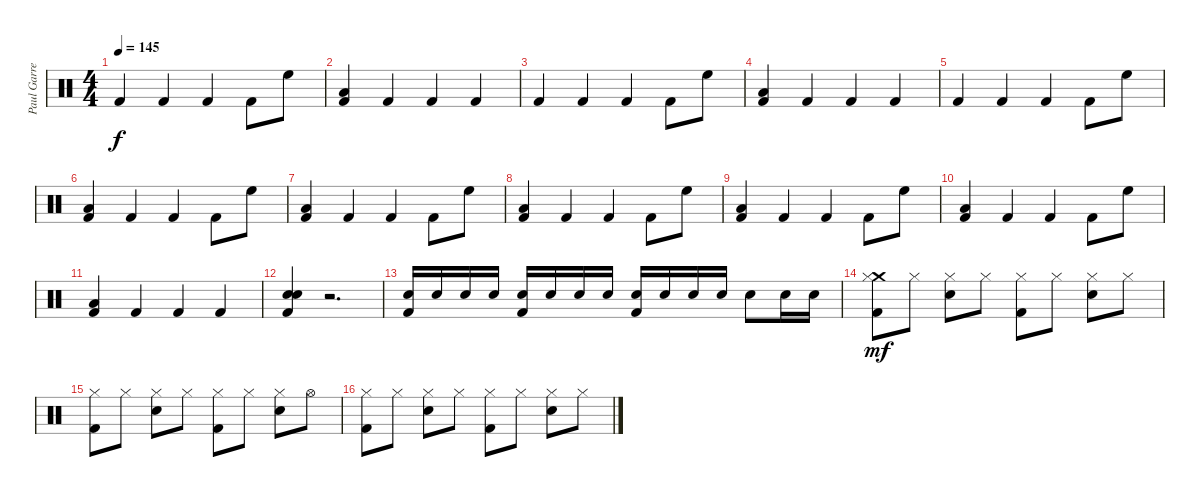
\track ("Paul Garred (Percussion)" "Paul Garre") {instrument percussion}
\staff {score}
\articulation defaults
\ts (4 4)
\tempo 145
\clef neutral
\ks c "Kick (hit) 2".4{dy f} "Kick (hit) 2".4 "Kick (hit) 2".4 "Kick (hit) 2".8 "High Floor Tom (hit)".8
|
("Low Tom (hit)" "Kick (hit) 2").4 "Kick (hit) 2".4 "Kick (hit) 2".4 "Kick (hit) 2".4 |
"Kick (hit) 2".4 "Kick (hit) 2".4 "Kick (hit) 2".4 "Kick (hit) 2".8 "High Floor Tom (hit)".8 |
("Low Tom (hit)" "Kick (hit) 2").4 "Kick (hit) 2".4 "Kick (hit) 2".4 "Kick (hit) 2".4 |
"Kick (hit) 2".4 "Kick (hit) 2".4 "Kick (hit) 2".4 "Kick (hit) 2".8 "High Floor Tom (hit)".8 |
("Low Tom (hit)" "Kick (hit) 2").4 "Kick (hit) 2".4 "Kick (hit) 2".4 "Kick (hit) 2".8 "High Floor Tom (hit)".8 |
("Low Tom (hit)" "Kick (hit) 2").4 "Kick (hit) 2".4 "Kick (hit) 2".4 "Kick (hit) 2".8 "High Floor Tom (hit)".8 |
("Low Tom (hit)" "Kick (hit) 2").4 "Kick (hit) 2".4 "Kick (hit) 2".4 "Kick (hit) 2".8 "High Floor Tom (hit)".8 |
("Low Tom (hit)" "Kick (hit) 2").4 "Kick (hit) 2".4 "Kick (hit) 2".4 "Kick (hit) 2".8 "High Floor Tom (hit)".8 |
("Low Tom (hit)" "Kick (hit) 2").4 "Kick (hit) 2".4 "Kick (hit) 2".4 "Kick (hit) 2".8 "High Floor Tom (hit)".8 |
("Low Tom (hit)" "Kick (hit) 2").4 "Kick (hit) 2".4 "Kick (hit) 2".4 "Kick (hit) 2".4 |
("Snare (hit) 2" "Snare (hit) 2" "Kick (hit) 2").4 r.2{d} |
("Snare (hit) 2" "Kick (hit) 2").16 "Snare (hit) 2".16 "Snare (hit) 2".16 "Snare (hit) 2".16 ("Snare (hit) 2" "Kick (hit) 2").16 "Snare (hit) 2".16 "Snare (hit) 2".16 "Snare (hit) 2".16 ("Snare (hit) 2" "Kick (hit) 2").16 "Snare (hit) 2".16 "Snare (hit) 2".16 "Snare (hit) 2".16 "Snare (hit) 2".8 "Snare (hit) 2".16 "Snare (hit) 2".16 |
("Crash medium (hit)" "Hi-Hat (closed)" "Kick (hit) 2").8{dy mf} "Hi-Hat (closed)".8 ("Hi-Hat (closed)" "Snare (hit) 2").8 "Hi-Hat (closed)".8 ("Hi-Hat (closed)" "Kick (hit) 2").8 "Hi-Hat (closed)".8 ("Hi-Hat (closed)" "Snare (hit) 2").8 "Hi-Hat (closed)".8 |
("Hi-Hat (closed)" "Kick (hit) 2").8 "Hi-Hat (closed)".8 ("Hi-Hat (closed)" "Snare (hit) 2").8 "Hi-Hat (closed)".8 ("Hi-Hat (closed)" "Kick (hit) 2").8 "Hi-Hat (closed)".8 ("Hi-Hat (closed)" "Snare (hit) 2").8 "Hi-Hat (open)".8 |
("Hi-Hat (closed)" "Kick (hit) 2").8 "Hi-Hat (closed)".8 ("Hi-Hat (closed)" "Snare (hit) 2").8 "Hi-Hat (closed)".8 ("Hi-Hat (closed)" "Kick (hit) 2").8 "Hi-Hat (closed)".8 ("Hi-Hat (closed)" "Snare (hit) 2").8 "Hi-Hat (closed)".8
